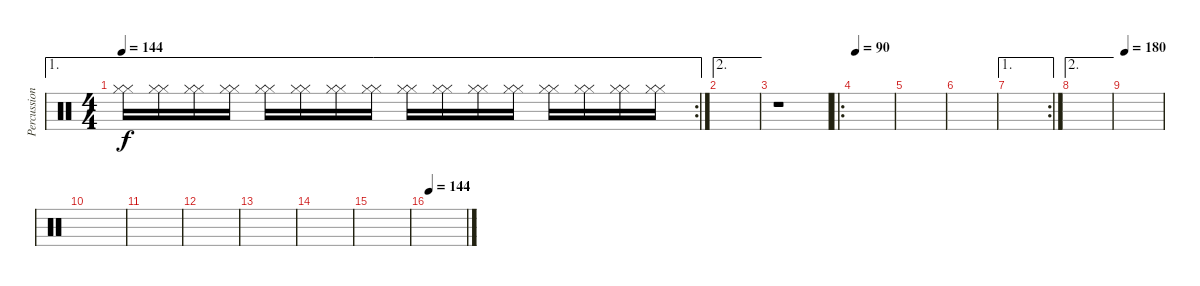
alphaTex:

\track ("Percussion 3" "Percussion") {instrument percussion}
\staff {score}
\articulation defaults
\ae 1
\rc 2
\ts (4 4)
\tempo 144
\clef neutral
\ks c
("Hi-Hat (closed)" "Hi-Hat (closed)").16{dy f} ("Hi-Hat (closed)" "Hi-Hat (closed)").16 ("Hi-Hat (closed)" "Hi-Hat (closed)").16 ("Hi-Hat (closed)" "Hi-Hat (closed)").16 ("Hi-Hat (closed)" "Hi-Hat (closed)").16 ("Hi-Hat (closed)" "Hi-Hat (closed)").16 ("Hi-Hat (closed)" "Hi-Hat (closed)").16 ("Hi-Hat (closed)" "Hi-Hat (closed)").16 ("Hi-Hat (closed)" "Hi-Hat (closed)").16 ("Hi-Hat (closed)" "Hi-Hat (closed)").16 ("Hi-Hat (closed)" "Hi-Hat (closed)").16 ("Hi-Hat (closed)" "Hi-Hat (closed)").16 ("Hi-Hat (closed)" "Hi-Hat (closed)").16 ("Hi-Hat (closed)" "Hi-Hat (closed)").16 ("Hi-Hat (closed)" "Hi-Hat (closed)").16 ("Hi-Hat (closed)" "Hi-Hat (closed)").16 |
\ae 2
|
r.1 |
\ro
\tempo 90
|
|
|
\ae 1
\rc 2
|
\ae 2
|
\tempo 180
|
|
|
|
|
|
|
\tempo 144
